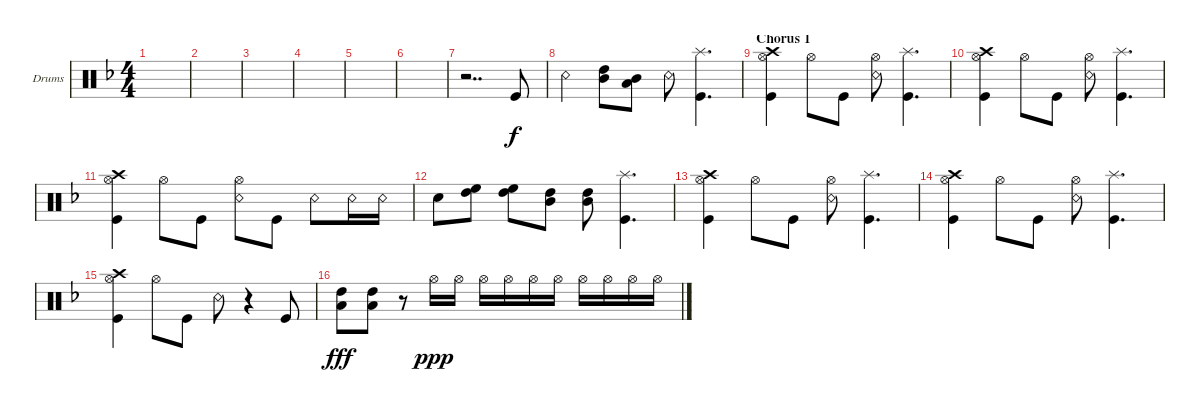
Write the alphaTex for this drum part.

\bracketExtendMode groupsimilarinstruments
\firstSystemTrackNameOrientation horizontal
\otherSystemsTrackNameOrientation horizontal
\track ("Drumkit" "Drums") {instrument percussion}
\staff {score}
\articulation defaults
\ts (4 4)
\tempo (125 hide)
\clef neutral
\scale
0.333333
\ks dminor
|
\scale
0.333333 |
\scale
0.333333 |
\scale
0.333333 |
\scale
0.333333 |
\scale
0.333333 |
\scale
0.333333 r.2{dd} "Kick (hit)".8 |
\scale
0.333333 "Snare (rim shot)".4 ("Mid Tom (hit)" "High Tom (hit)").8 ("Mid Tom (hit)" "Low Tom (hit)").8 "Snare (rim shot)".8 ("Kick (hit)" "Splash (hit)").4{d} |
\section ("" "Chorus 1")
\scale
0.333333 ("Hi-Hat (open)" "Kick (hit)" "Crash high (hit)").4 "Hi-Hat (open)".8 "Kick (hit)".8 ("Hi-Hat (open)" "Snare (rim shot)").8 ("Kick (hit)" "Splash (hit)").4{d} |
\scale
0.333333 ("Hi-Hat (open)" "Kick (hit)" "Crash high (hit)").4 "Hi-Hat (open)".8 "Kick (hit)".8 ("Hi-Hat (open)" "Snare (rim shot)").8 ("Kick (hit)" "Splash (hit)").4{d} |
\scale
0.333333 ("Hi-Hat (open)" "Kick (hit)" "Crash high (hit)").4 "Hi-Hat (open)".8 "Kick (hit)".8 ("Hi-Hat (open)" "Snare (rim shot)").8 "Kick (hit)".8 "Snare (rim shot)".8 "Snare (rim shot)".16 "Snare (rim shot)".16 |
\scale
0.333333 "Snare (hit) 2".8 ("High Floor Tom (hit)" "High Tom (hit)").8 ("High Tom (hit)" "High Floor Tom (hit)").8 ("High Tom (hit)" "Mid Tom (hit)").8 ("High Tom (hit)" "Mid Tom (hit)").8 ("Kick (hit)" "Splash (hit)").4{d} |
\scale
0.333333 ("Hi-Hat (open)" "Kick (hit)" "Crash high (hit)").4 "Hi-Hat (open)".8 "Kick (hit)".8 ("Hi-Hat (open)" "Snare (rim shot)").8 ("Kick (hit)" "Splash (hit)").4{d} |
\scale
0.333333 ("Hi-Hat (open)" "Kick (hit)" "Crash high (hit)").4 "Hi-Hat (open)".8 "Kick (hit)".8 ("Hi-Hat (open)" "Snare (rim shot)").8 ("Kick (hit)" "Splash (hit)").4{d} |
\scale
0.333333 ("Hi-Hat (open)" "Kick (hit)" "Crash high (hit)").4 "Hi-Hat (open)".8 "Kick (hit)".8 "Snare (rim shot)".8 r.4 "Kick (hit)".8 |
\scale
0.333333 ("Low Tom (hit)" "High Tom (hit)").8{dy fff} ("Low Tom (hit)" "High Tom (hit)").8 r.8 "Hi-Hat (open)".16{dy ppp} "Hi-Hat (open)".16 "Hi-Hat (open)".16 "Hi-Hat (open)".16 "Hi-Hat (open)".16 "Hi-Hat (open)".16 "Hi-Hat (open)".16 "Hi-Hat (open)".16 "Hi-Hat (open)".16 "Hi-Hat (open)".16
